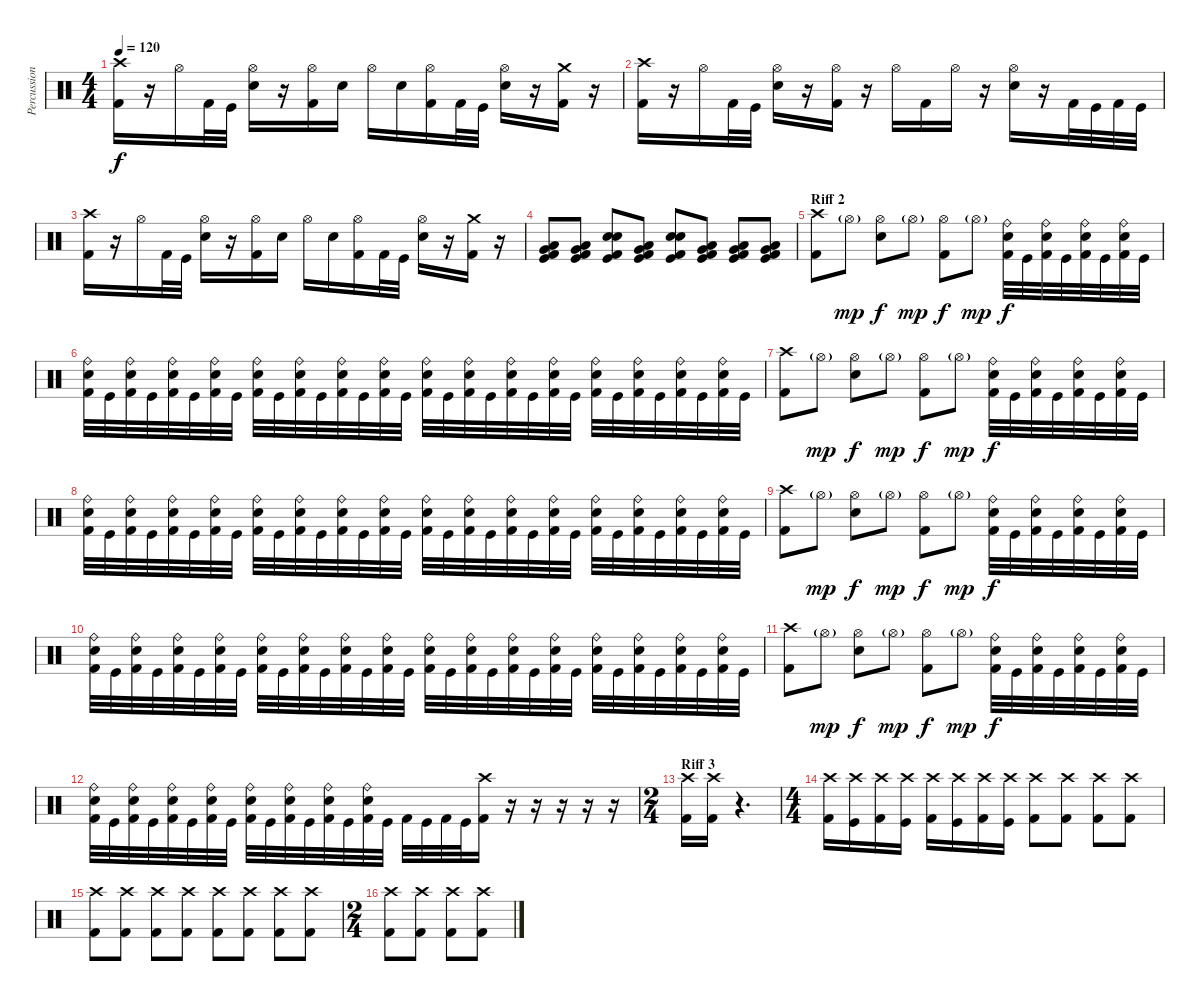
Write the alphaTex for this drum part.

\track ("Percussion" "Percussion") {instrument percussion}
\staff {score}
\articulation defaults
\ts (4 4)
\tempo 120
\clef neutral
\ks c
("Kick (hit) 2" "Crash high (hit)").16{dy f} r.16 "Hi-Hat (open)".16 "Kick (hit) 2".32 "Kick (hit)".32 ("Electric Snare (hit)" "Hi-Hat (open)").16 r.16 ("Kick (hit) 2" "Hi-Hat (open)").16 "Electric Snare (hit)".16 "Hi-Hat (open)".16 "Electric Snare (hit)".16 ("Kick (hit) 2" "Hi-Hat (open)").16 "Kick (hit) 2".32 "Kick (hit)".32 ("Electric Snare (hit)" "Hi-Hat (open)").16 r.16 ("Kick (hit) 2" "Crash medium (hit)").16 r.16 |
("Kick (hit) 2" "Crash high (hit)").16 r.16 "Hi-Hat (open)".16 "Kick (hit) 2".32 "Kick (hit)".32 ("Electric Snare (hit)" "Hi-Hat (open)").16 r.16 ("Kick (hit) 2" "Hi-Hat (open)").16 r.16 "Hi-Hat (open)".16 "Kick (hit) 2".16 "Hi-Hat (open)".16 r.16 ("Electric Snare (hit)" "Hi-Hat (open)").16 r.16 "Kick (hit) 2".32 "Kick (hit)".32 "Kick (hit) 2".32 "Kick (hit)".32 |
("Kick (hit) 2" "Crash high (hit)").16 r.16 "Hi-Hat (open)".16 "Kick (hit) 2".32 "Kick (hit)".32 ("Electric Snare (hit)" "Hi-Hat (open)").16 r.16 ("Kick (hit) 2" "Hi-Hat (open)").16 "Electric Snare (hit)".16 "Hi-Hat (open)".16 "Electric Snare (hit)".16 ("Kick (hit) 2" "Hi-Hat (open)").16 "Kick (hit) 2".32 "Kick (hit)".32 ("Electric Snare (hit)" "Hi-Hat (open)").16 r.16 ("Kick (hit) 2" "Crash medium (hit)").16 r.16 |
("Kick (hit) 2" "Low Tom (hit)" "Very Low Tom (hit)" "Kick (hit)").8 ("Kick (hit) 2" "Low Tom (hit)" "Very Low Tom (hit)" "Kick (hit)").8 ("Electric Snare (hit)" "Electric Snare (hit)" "Kick (hit) 2" "Kick (hit)").8 ("Kick (hit) 2" "Low Tom (hit)" "Very Low Tom (hit)" "Kick (hit)").8 ("Electric Snare (hit)" "Electric Snare (hit)" "Kick (hit) 2" "Kick (hit)").8 ("Kick (hit) 2" "Low Tom (hit)" "Very Low Tom (hit)" "Kick (hit)").8 ("Kick (hit) 2" "Low Tom (hit)" "Very Low Tom (hit)" "Kick (hit)").8 ("Kick (hit) 2" "Low Tom (hit)" "Very Low Tom (hit)" "Kick (hit)").8 |
\section ("" "Riff 2")
("Kick (hit) 2" "Crash high (hit)").8 "Hi-Hat (open)"{g}.8{dy mp} ("Electric Snare (hit)" "Hi-Hat (open)").8{dy f} "Hi-Hat (open)"{g}.8{dy mp} ("Kick (hit) 2" "Hi-Hat (open)").8{dy f} "Hi-Hat (open)"{g}.8{dy mp} ("Kick (hit) 2" "Electric Snare (hit)" "Ride (bell)").32{dy f} "Kick (hit)".32 ("Kick (hit) 2" "Electric Snare (hit)" "Ride (bell)").32 "Kick (hit)".32 ("Kick (hit) 2" "Electric Snare (hit)" "Ride (bell)").32 "Kick (hit)".32 ("Kick (hit) 2" "Electric Snare (hit)" "Ride (bell)").32 "Kick (hit)".32 |
("Kick (hit) 2" "Electric Snare (hit)" "Ride (bell)").32 "Kick (hit)".32 ("Kick (hit) 2" "Electric Snare (hit)" "Ride (bell)").32 "Kick (hit)".32 ("Kick (hit) 2" "Electric Snare (hit)" "Ride (bell)").32 "Kick (hit)".32 ("Kick (hit) 2" "Electric Snare (hit)" "Ride (bell)").32 "Kick (hit)".32 ("Kick (hit) 2" "Electric Snare (hit)" "Ride (bell)").32 "Kick (hit)".32 ("Kick (hit) 2" "Electric Snare (hit)" "Ride (bell)").32 "Kick (hit)".32 ("Kick (hit) 2" "Electric Snare (hit)" "Ride (bell)").32 "Kick (hit)".32 ("Kick (hit) 2" "Electric Snare (hit)" "Ride (bell)").32 "Kick (hit)".32 ("Kick (hit) 2" "Electric Snare (hit)" "Ride (bell)").32 "Kick (hit)".32 ("Kick (hit) 2" "Electric Snare (hit)" "Ride (bell)").32 "Kick (hit)".32 ("Kick (hit) 2" "Electric Snare (hit)" "Ride (bell)").32 "Kick (hit)".32 ("Kick (hit) 2" "Electric Snare (hit)" "Ride (bell)").32 "Kick (hit)".32 ("Kick (hit) 2" "Electric Snare (hit)" "Ride (bell)").32 "Kick (hit)".32 ("Kick (hit) 2" "Electric Snare (hit)" "Ride (bell)").32 "Kick (hit)".32 ("Kick (hit) 2" "Electric Snare (hit)" "Ride (bell)").32 "Kick (hit)".32 ("Kick (hit) 2" "Electric Snare (hit)" "Ride (bell)").32 "Kick (hit)".32 |
("Kick (hit) 2" "Crash high (hit)").8 "Hi-Hat (open)"{g}.8{dy mp} ("Electric Snare (hit)" "Hi-Hat (open)").8{dy f} "Hi-Hat (open)"{g}.8{dy mp} ("Kick (hit) 2" "Hi-Hat (open)").8{dy f} "Hi-Hat (open)"{g}.8{dy mp} ("Kick (hit) 2" "Electric Snare (hit)" "Ride (bell)").32{dy f} "Kick (hit)".32 ("Kick (hit) 2" "Electric Snare (hit)" "Ride (bell)").32 "Kick (hit)".32 ("Kick (hit) 2" "Electric Snare (hit)" "Ride (bell)").32 "Kick (hit)".32 ("Kick (hit) 2" "Electric Snare (hit)" "Ride (bell)").32 "Kick (hit)".32 |
("Kick (hit) 2" "Electric Snare (hit)" "Ride (bell)").32 "Kick (hit)".32 ("Kick (hit) 2" "Electric Snare (hit)" "Ride (bell)").32 "Kick (hit)".32 ("Kick (hit) 2" "Electric Snare (hit)" "Ride (bell)").32 "Kick (hit)".32 ("Kick (hit) 2" "Electric Snare (hit)" "Ride (bell)").32 "Kick (hit)".32 ("Kick (hit) 2" "Electric Snare (hit)" "Ride (bell)").32 "Kick (hit)".32 ("Kick (hit) 2" "Electric Snare (hit)" "Ride (bell)").32 "Kick (hit)".32 ("Kick (hit) 2" "Electric Snare (hit)" "Ride (bell)").32 "Kick (hit)".32 ("Kick (hit) 2" "Electric Snare (hit)" "Ride (bell)").32 "Kick (hit)".32 ("Kick (hit) 2" "Electric Snare (hit)" "Ride (bell)").32 "Kick (hit)".32 ("Kick (hit) 2" "Electric Snare (hit)" "Ride (bell)").32 "Kick (hit)".32 ("Kick (hit) 2" "Electric Snare (hit)" "Ride (bell)").32 "Kick (hit)".32 ("Kick (hit) 2" "Electric Snare (hit)" "Ride (bell)").32 "Kick (hit)".32 ("Kick (hit) 2" "Electric Snare (hit)" "Ride (bell)").32 "Kick (hit)".32 ("Kick (hit) 2" "Electric Snare (hit)" "Ride (bell)").32 "Kick (hit)".32 ("Kick (hit) 2" "Electric Snare (hit)" "Ride (bell)").32 "Kick (hit)".32 ("Kick (hit) 2" "Electric Snare (hit)" "Ride (bell)").32 "Kick (hit)".32 |
("Kick (hit) 2" "Crash high (hit)").8 "Hi-Hat (open)"{g}.8{dy mp} ("Electric Snare (hit)" "Hi-Hat (open)").8{dy f} "Hi-Hat (open)"{g}.8{dy mp} ("Kick (hit) 2" "Hi-Hat (open)").8{dy f} "Hi-Hat (open)"{g}.8{dy mp} ("Kick (hit) 2" "Electric Snare (hit)" "Ride (bell)").32{dy f} "Kick (hit)".32 ("Kick (hit) 2" "Electric Snare (hit)" "Ride (bell)").32 "Kick (hit)".32 ("Kick (hit) 2" "Electric Snare (hit)" "Ride (bell)").32 "Kick (hit)".32 ("Kick (hit) 2" "Electric Snare (hit)" "Ride (bell)").32 "Kick (hit)".32 |
("Kick (hit) 2" "Electric Snare (hit)" "Ride (bell)").32 "Kick (hit)".32 ("Kick (hit) 2" "Electric Snare (hit)" "Ride (bell)").32 "Kick (hit)".32 ("Kick (hit) 2" "Electric Snare (hit)" "Ride (bell)").32 "Kick (hit)".32 ("Kick (hit) 2" "Electric Snare (hit)" "Ride (bell)").32 "Kick (hit)".32 ("Kick (hit) 2" "Electric Snare (hit)" "Ride (bell)").32 "Kick (hit)".32 ("Kick (hit) 2" "Electric Snare (hit)" "Ride (bell)").32 "Kick (hit)".32 ("Kick (hit) 2" "Electric Snare (hit)" "Ride (bell)").32 "Kick (hit)".32 ("Kick (hit) 2" "Electric Snare (hit)" "Ride (bell)").32 "Kick (hit)".32 ("Kick (hit) 2" "Electric Snare (hit)" "Ride (bell)").32 "Kick (hit)".32 ("Kick (hit) 2" "Electric Snare (hit)" "Ride (bell)").32 "Kick (hit)".32 ("Kick (hit) 2" "Electric Snare (hit)" "Ride (bell)").32 "Kick (hit)".32 ("Kick (hit) 2" "Electric Snare (hit)" "Ride (bell)").32 "Kick (hit)".32 ("Kick (hit) 2" "Electric Snare (hit)" "Ride (bell)").32 "Kick (hit)".32 ("Kick (hit) 2" "Electric Snare (hit)" "Ride (bell)").32 "Kick (hit)".32 ("Kick (hit) 2" "Electric Snare (hit)" "Ride (bell)").32 "Kick (hit)".32 ("Kick (hit) 2" "Electric Snare (hit)" "Ride (bell)").32 "Kick (hit)".32 |
("Kick (hit) 2" "Crash high (hit)").8 "Hi-Hat (open)"{g}.8{dy mp} ("Electric Snare (hit)" "Hi-Hat (open)").8{dy f} "Hi-Hat (open)"{g}.8{dy mp} ("Kick (hit) 2" "Hi-Hat (open)").8{dy f} "Hi-Hat (open)"{g}.8{dy mp} ("Kick (hit) 2" "Electric Snare (hit)" "Ride (bell)").32{dy f} "Kick (hit)".32 ("Kick (hit) 2" "Electric Snare (hit)" "Ride (bell)").32 "Kick (hit)".32 ("Kick (hit) 2" "Electric Snare (hit)" "Ride (bell)").32 "Kick (hit)".32 ("Kick (hit) 2" "Electric Snare (hit)" "Ride (bell)").32 "Kick (hit)".32 |
("Kick (hit) 2" "Electric Snare (hit)" "Ride (bell)").32 "Kick (hit)".32 ("Kick (hit) 2" "Electric Snare (hit)" "Ride (bell)").32 "Kick (hit)".32 ("Kick (hit) 2" "Electric Snare (hit)" "Ride (bell)").32 "Kick (hit)".32 ("Kick (hit) 2" "Electric Snare (hit)" "Ride (bell)").32 "Kick (hit)".32 ("Kick (hit) 2" "Electric Snare (hit)" "Ride (bell)").32 "Kick (hit)".32 ("Kick (hit) 2" "Electric Snare (hit)" "Ride (bell)").32 "Kick (hit)".32 ("Kick (hit) 2" "Electric Snare (hit)" "Ride (bell)").32 "Kick (hit)".32 ("Kick (hit) 2" "Electric Snare (hit)" "Ride (bell)").32 "Kick (hit)".32 "Kick (hit) 2".32 "Kick (hit)".32 "Kick (hit) 2".32 "Kick (hit)".32 ("Kick (hit) 2" "Crash high (hit)").16 r.16 r.16 r.16 r.16 r.16 |
\ts (2 4)
\section ("" "Riff 3")
("Kick (hit) 2" "Crash high (hit)").16 ("Kick (hit) 2" "Crash high (hit)").16 r.4{d} |
\ts (4 4)
("Kick (hit) 2" "Crash high (hit)").16 ("Kick (hit)" "Crash high (hit)").16 ("Kick (hit) 2" "Crash high (hit)").16 ("Kick (hit)" "Crash high (hit)").16 ("Kick (hit) 2" "Crash high (hit)").16 ("Kick (hit)" "Crash high (hit)").16 ("Kick (hit) 2" "Crash high (hit)").16 ("Kick (hit)" "Crash high (hit)").16 ("Kick (hit) 2" "Crash high (hit)").8 ("Kick (hit) 2" "Crash high (hit)").8 ("Kick (hit) 2" "Crash high (hit)").8 ("Kick (hit) 2" "Crash high (hit)").8 |
("Kick (hit) 2" "Crash high (hit)").8 ("Kick (hit) 2" "Crash high (hit)").8 ("Kick (hit) 2" "Crash high (hit)").8 ("Kick (hit) 2" "Crash high (hit)").8 ("Kick (hit) 2" "Crash high (hit)").8 ("Kick (hit) 2" "Crash high (hit)").8 ("Kick (hit) 2" "Crash high (hit)").8 ("Kick (hit) 2" "Crash high (hit)").8 |
\ts (2 4)
("Kick (hit) 2" "Crash high (hit)").8 ("Kick (hit) 2" "Crash high (hit)").8 ("Kick (hit) 2" "Crash high (hit)").8 ("Kick (hit) 2" "Crash high (hit)").8
